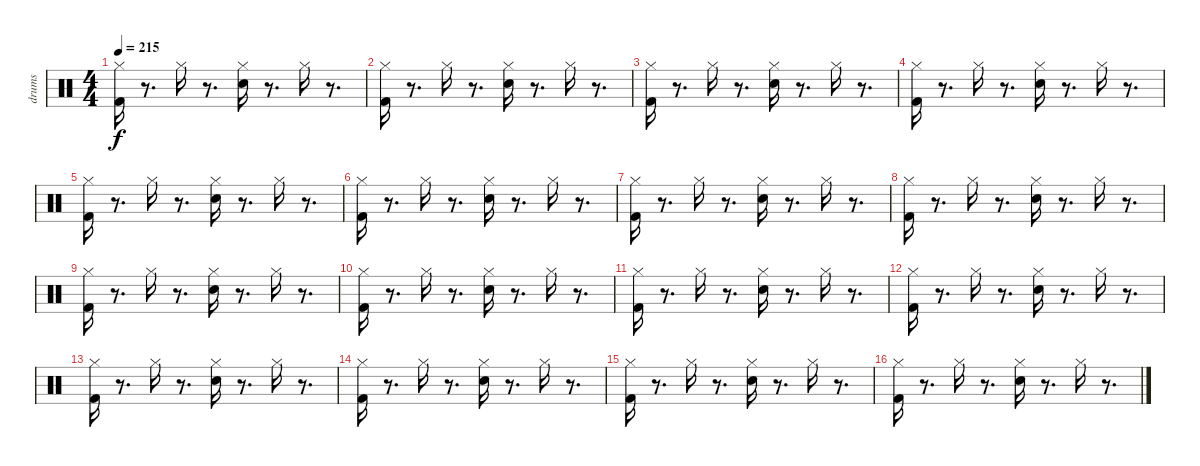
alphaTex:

\track ("drums" "drums") {instrument percussion}
\staff {score}
\articulation defaults
\ts (4 4)
\tempo 215
\clef neutral
\ks c
("Hi-Hat (closed)" "Kick (hit) 2").16{dy f} r.8{d} "Hi-Hat (closed)".16 r.8{d} ("Hi-Hat (closed)" "Electric Snare (hit)").16 r.8{d} "Hi-Hat (closed)".16 r.8{d} |
("Hi-Hat (closed)" "Kick (hit) 2").16 r.8{d} "Hi-Hat (closed)".16 r.8{d} ("Hi-Hat (closed)" "Electric Snare (hit)").16 r.8{d} "Hi-Hat (closed)".16 r.8{d} |
("Hi-Hat (closed)" "Kick (hit) 2").16 r.8{d} "Hi-Hat (closed)".16 r.8{d} ("Hi-Hat (closed)" "Electric Snare (hit)").16 r.8{d} "Hi-Hat (closed)".16 r.8{d} |
("Hi-Hat (closed)" "Kick (hit) 2").16 r.8{d} "Hi-Hat (closed)".16 r.8{d} ("Hi-Hat (closed)" "Electric Snare (hit)").16 r.8{d} "Hi-Hat (closed)".16 r.8{d} |
("Hi-Hat (closed)" "Kick (hit) 2").16 r.8{d} "Hi-Hat (closed)".16 r.8{d} ("Hi-Hat (closed)" "Electric Snare (hit)").16 r.8{d} "Hi-Hat (closed)".16 r.8{d} |
("Hi-Hat (closed)" "Kick (hit) 2").16 r.8{d} "Hi-Hat (closed)".16 r.8{d} ("Hi-Hat (closed)" "Electric Snare (hit)").16 r.8{d} "Hi-Hat (closed)".16 r.8{d} |
("Hi-Hat (closed)" "Kick (hit) 2").16 r.8{d} "Hi-Hat (closed)".16 r.8{d} ("Hi-Hat (closed)" "Electric Snare (hit)").16 r.8{d} "Hi-Hat (closed)".16 r.8{d} |
("Hi-Hat (closed)" "Kick (hit) 2").16 r.8{d} "Hi-Hat (closed)".16 r.8{d} ("Hi-Hat (closed)" "Electric Snare (hit)").16 r.8{d} "Hi-Hat (closed)".16 r.8{d} |
("Hi-Hat (closed)" "Kick (hit) 2").16 r.8{d} "Hi-Hat (closed)".16 r.8{d} ("Hi-Hat (closed)" "Electric Snare (hit)").16 r.8{d} "Hi-Hat (closed)".16 r.8{d} |
("Hi-Hat (closed)" "Kick (hit) 2").16 r.8{d} "Hi-Hat (closed)".16 r.8{d} ("Hi-Hat (closed)" "Electric Snare (hit)").16 r.8{d} "Hi-Hat (closed)".16 r.8{d} |
("Hi-Hat (closed)" "Kick (hit) 2").16 r.8{d} "Hi-Hat (closed)".16 r.8{d} ("Hi-Hat (closed)" "Electric Snare (hit)").16 r.8{d} "Hi-Hat (closed)".16 r.8{d} |
("Hi-Hat (closed)" "Kick (hit) 2").16 r.8{d} "Hi-Hat (closed)".16 r.8{d} ("Hi-Hat (closed)" "Electric Snare (hit)").16 r.8{d} "Hi-Hat (closed)".16 r.8{d} |
("Hi-Hat (closed)" "Kick (hit) 2").16 r.8{d} "Hi-Hat (closed)".16 r.8{d} ("Hi-Hat (closed)" "Electric Snare (hit)").16 r.8{d} "Hi-Hat (closed)".16 r.8{d} |
("Hi-Hat (closed)" "Kick (hit) 2").16 r.8{d} "Hi-Hat (closed)".16 r.8{d} ("Hi-Hat (closed)" "Electric Snare (hit)").16 r.8{d} "Hi-Hat (closed)".16 r.8{d} |
("Hi-Hat (closed)" "Kick (hit) 2").16 r.8{d} "Hi-Hat (closed)".16 r.8{d} ("Hi-Hat (closed)" "Electric Snare (hit)").16 r.8{d} "Hi-Hat (closed)".16 r.8{d} |
("Hi-Hat (closed)" "Kick (hit) 2").16 r.8{d} "Hi-Hat (closed)".16 r.8{d} ("Hi-Hat (closed)" "Electric Snare (hit)").16 r.8{d} "Hi-Hat (closed)".16 r.8{d}
